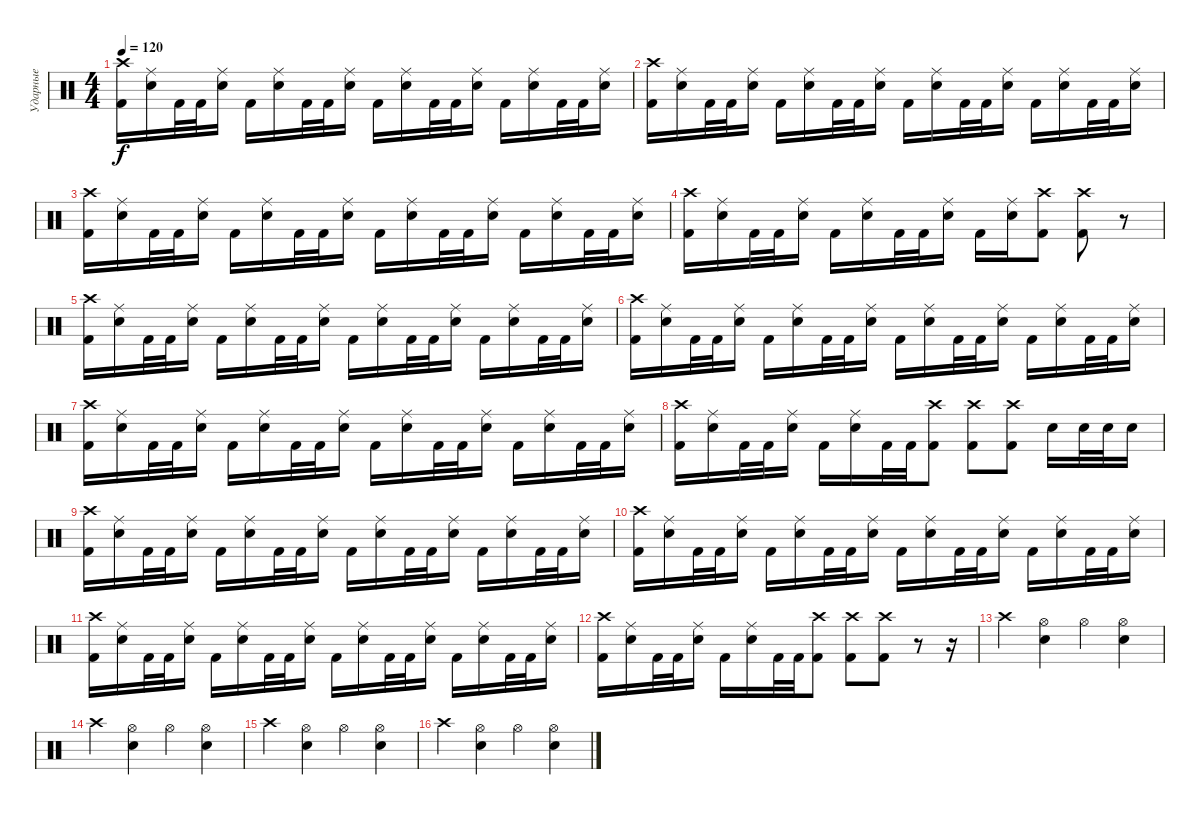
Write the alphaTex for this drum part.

\track ("Ударные" "Ударные") {instrument percussion}
\staff {score}
\articulation defaults
\ts (4 4)
\tempo 120
\clef neutral
\ks c
("Kick (hit) 2" "Crash high (hit)").16{dy f} ("Electric Snare (hit)" "Ride (middle)").16 "Kick (hit) 2".32 "Kick (hit) 2".32 ("Electric Snare (hit)" "Ride (middle)").16 "Kick (hit) 2".16 ("Electric Snare (hit)" "Ride (middle)").16 "Kick (hit) 2".32 "Kick (hit) 2".32 ("Electric Snare (hit)" "Ride (middle)").16 "Kick (hit) 2".16 ("Electric Snare (hit)" "Ride (middle)").16 "Kick (hit) 2".32 "Kick (hit) 2".32 ("Electric Snare (hit)" "Ride (middle)").16 "Kick (hit) 2".16 ("Electric Snare (hit)" "Ride (middle)").16 "Kick (hit) 2".32 "Kick (hit) 2".32 ("Electric Snare (hit)" "Ride (middle)").16 |
("Kick (hit) 2" "Crash high (hit)").16 ("Electric Snare (hit)" "Ride (middle)").16 "Kick (hit) 2".32 "Kick (hit) 2".32 ("Electric Snare (hit)" "Ride (middle)").16 "Kick (hit) 2".16 ("Electric Snare (hit)" "Ride (middle)").16 "Kick (hit) 2".32 "Kick (hit) 2".32 ("Electric Snare (hit)" "Ride (middle)").16 "Kick (hit) 2".16 ("Electric Snare (hit)" "Ride (middle)").16 "Kick (hit) 2".32 "Kick (hit) 2".32 ("Electric Snare (hit)" "Ride (middle)").16 "Kick (hit) 2".16 ("Electric Snare (hit)" "Ride (middle)").16 "Kick (hit) 2".32 "Kick (hit) 2".32 ("Electric Snare (hit)" "Ride (middle)").16 |
("Kick (hit) 2" "Crash high (hit)").16 ("Electric Snare (hit)" "Ride (middle)").16 "Kick (hit) 2".32 "Kick (hit) 2".32 ("Electric Snare (hit)" "Ride (middle)").16 "Kick (hit) 2".16 ("Electric Snare (hit)" "Ride (middle)").16 "Kick (hit) 2".32 "Kick (hit) 2".32 ("Electric Snare (hit)" "Ride (middle)").16 "Kick (hit) 2".16 ("Electric Snare (hit)" "Ride (middle)").16 "Kick (hit) 2".32 "Kick (hit) 2".32 ("Electric Snare (hit)" "Ride (middle)").16 "Kick (hit) 2".16 ("Electric Snare (hit)" "Ride (middle)").16 "Kick (hit) 2".32 "Kick (hit) 2".32 ("Electric Snare (hit)" "Ride (middle)").16 |
("Kick (hit) 2" "Crash high (hit)").16 ("Electric Snare (hit)" "Ride (middle)").16 "Kick (hit) 2".32 "Kick (hit) 2".32 ("Electric Snare (hit)" "Ride (middle)").16 "Kick (hit) 2".16 ("Electric Snare (hit)" "Ride (middle)").16 "Kick (hit) 2".32 "Kick (hit) 2".32 ("Electric Snare (hit)" "Ride (middle)").16 "Kick (hit) 2".16 ("Electric Snare (hit)" "Ride (middle)").16 ("Kick (hit) 2" "Crash high (hit)").8 ("Kick (hit) 2" "Crash high (hit)").8 r.8 |
("Kick (hit) 2" "Crash high (hit)").16 ("Electric Snare (hit)" "Ride (middle)").16 "Kick (hit) 2".32 "Kick (hit) 2".32 ("Electric Snare (hit)" "Ride (middle)").16 "Kick (hit) 2".16 ("Electric Snare (hit)" "Ride (middle)").16 "Kick (hit) 2".32 "Kick (hit) 2".32 ("Electric Snare (hit)" "Ride (middle)").16 "Kick (hit) 2".16 ("Electric Snare (hit)" "Ride (middle)").16 "Kick (hit) 2".32 "Kick (hit) 2".32 ("Electric Snare (hit)" "Ride (middle)").16 "Kick (hit) 2".16 ("Electric Snare (hit)" "Ride (middle)").16 "Kick (hit) 2".32 "Kick (hit) 2".32 ("Electric Snare (hit)" "Ride (middle)").16 |
("Kick (hit) 2" "Crash high (hit)").16 ("Electric Snare (hit)" "Ride (middle)").16 "Kick (hit) 2".32 "Kick (hit) 2".32 ("Electric Snare (hit)" "Ride (middle)").16 "Kick (hit) 2".16 ("Electric Snare (hit)" "Ride (middle)").16 "Kick (hit) 2".32 "Kick (hit) 2".32 ("Electric Snare (hit)" "Ride (middle)").16 "Kick (hit) 2".16 ("Electric Snare (hit)" "Ride (middle)").16 "Kick (hit) 2".32 "Kick (hit) 2".32 ("Electric Snare (hit)" "Ride (middle)").16 "Kick (hit) 2".16 ("Electric Snare (hit)" "Ride (middle)").16 "Kick (hit) 2".32 "Kick (hit) 2".32 ("Electric Snare (hit)" "Ride (middle)").16 |
("Kick (hit) 2" "Crash high (hit)").16 ("Electric Snare (hit)" "Ride (middle)").16 "Kick (hit) 2".32 "Kick (hit) 2".32 ("Electric Snare (hit)" "Ride (middle)").16 "Kick (hit) 2".16 ("Electric Snare (hit)" "Ride (middle)").16 "Kick (hit) 2".32 "Kick (hit) 2".32 ("Electric Snare (hit)" "Ride (middle)").16 "Kick (hit) 2".16 ("Electric Snare (hit)" "Ride (middle)").16 "Kick (hit) 2".32 "Kick (hit) 2".32 ("Electric Snare (hit)" "Ride (middle)").16 "Kick (hit) 2".16 ("Electric Snare (hit)" "Ride (middle)").16 "Kick (hit) 2".32 "Kick (hit) 2".32 ("Electric Snare (hit)" "Ride (middle)").16 |
("Kick (hit) 2" "Crash high (hit)").16 ("Electric Snare (hit)" "Ride (middle)").16 "Kick (hit) 2".32 "Kick (hit) 2".32 ("Electric Snare (hit)" "Ride (middle)").16 "Kick (hit) 2".16 ("Electric Snare (hit)" "Ride (middle)").16 "Kick (hit) 2".32 "Kick (hit) 2".32 ("Crash high (hit)" "Kick (hit) 2").8 ("Kick (hit) 2" "Crash high (hit)").8 ("Kick (hit) 2" "Crash high (hit)").8 "Electric Snare (hit)".16 "Electric Snare (hit)".32 "Electric Snare (hit)".32 "Electric Snare (hit)".16 |
("Kick (hit) 2" "Crash high (hit)").16 ("Electric Snare (hit)" "Ride (middle)").16 "Kick (hit) 2".32 "Kick (hit) 2".32 ("Electric Snare (hit)" "Ride (middle)").16 "Kick (hit) 2".16 ("Electric Snare (hit)" "Ride (middle)").16 "Kick (hit) 2".32 "Kick (hit) 2".32 ("Electric Snare (hit)" "Ride (middle)").16 "Kick (hit) 2".16 ("Electric Snare (hit)" "Ride (middle)").16 "Kick (hit) 2".32 "Kick (hit) 2".32 ("Electric Snare (hit)" "Ride (middle)").16 "Kick (hit) 2".16 ("Electric Snare (hit)" "Ride (middle)").16 "Kick (hit) 2".32 "Kick (hit) 2".32 ("Electric Snare (hit)" "Ride (middle)").16 |
("Kick (hit) 2" "Crash high (hit)").16 ("Electric Snare (hit)" "Ride (middle)").16 "Kick (hit) 2".32 "Kick (hit) 2".32 ("Electric Snare (hit)" "Ride (middle)").16 "Kick (hit) 2".16 ("Electric Snare (hit)" "Ride (middle)").16 "Kick (hit) 2".32 "Kick (hit) 2".32 ("Electric Snare (hit)" "Ride (middle)").16 "Kick (hit) 2".16 ("Electric Snare (hit)" "Ride (middle)").16 "Kick (hit) 2".32 "Kick (hit) 2".32 ("Electric Snare (hit)" "Ride (middle)").16 "Kick (hit) 2".16 ("Electric Snare (hit)" "Ride (middle)").16 "Kick (hit) 2".32 "Kick (hit) 2".32 ("Electric Snare (hit)" "Ride (middle)").16 |
("Kick (hit) 2" "Crash high (hit)").16 ("Electric Snare (hit)" "Ride (middle)").16 "Kick (hit) 2".32 "Kick (hit) 2".32 ("Electric Snare (hit)" "Ride (middle)").16 "Kick (hit) 2".16 ("Electric Snare (hit)" "Ride (middle)").16 "Kick (hit) 2".32 "Kick (hit) 2".32 ("Electric Snare (hit)" "Ride (middle)").16 "Kick (hit) 2".16 ("Electric Snare (hit)" "Ride (middle)").16 "Kick (hit) 2".32 "Kick (hit) 2".32 ("Electric Snare (hit)" "Ride (middle)").16 "Kick (hit) 2".16 ("Electric Snare (hit)" "Ride (middle)").16 "Kick (hit) 2".32 "Kick (hit) 2".32 ("Electric Snare (hit)" "Ride (middle)").16 |
("Kick (hit) 2" "Crash high (hit)").16 ("Electric Snare (hit)" "Ride (middle)").16 "Kick (hit) 2".32 "Kick (hit) 2".32 ("Electric Snare (hit)" "Ride (middle)").16 "Kick (hit) 2".16 ("Electric Snare (hit)" "Ride (middle)").16 "Kick (hit) 2".32 "Kick (hit) 2".32 ("Crash high (hit)" "Kick (hit) 2").8 ("Kick (hit) 2" "Crash high (hit)").8 ("Kick (hit) 2" "Crash high (hit)").8 r.8 r.16 |
"Crash high (hit)".4 ("Hi-Hat (open)" "Electric Snare (hit)").4 "Hi-Hat (open)".4 ("Hi-Hat (open)" "Electric Snare (hit)").4 |
"Crash high (hit)".4 ("Hi-Hat (open)" "Electric Snare (hit)").4 "Hi-Hat (open)".4 ("Hi-Hat (open)" "Electric Snare (hit)").4 |
"Crash high (hit)".4 ("Hi-Hat (open)" "Electric Snare (hit)").4 "Hi-Hat (open)".4 ("Hi-Hat (open)" "Electric Snare (hit)").4 |
"Crash high (hit)".4 ("Hi-Hat (open)" "Electric Snare (hit)").4 "Hi-Hat (open)".4 ("Hi-Hat (open)" "Electric Snare (hit)").4
